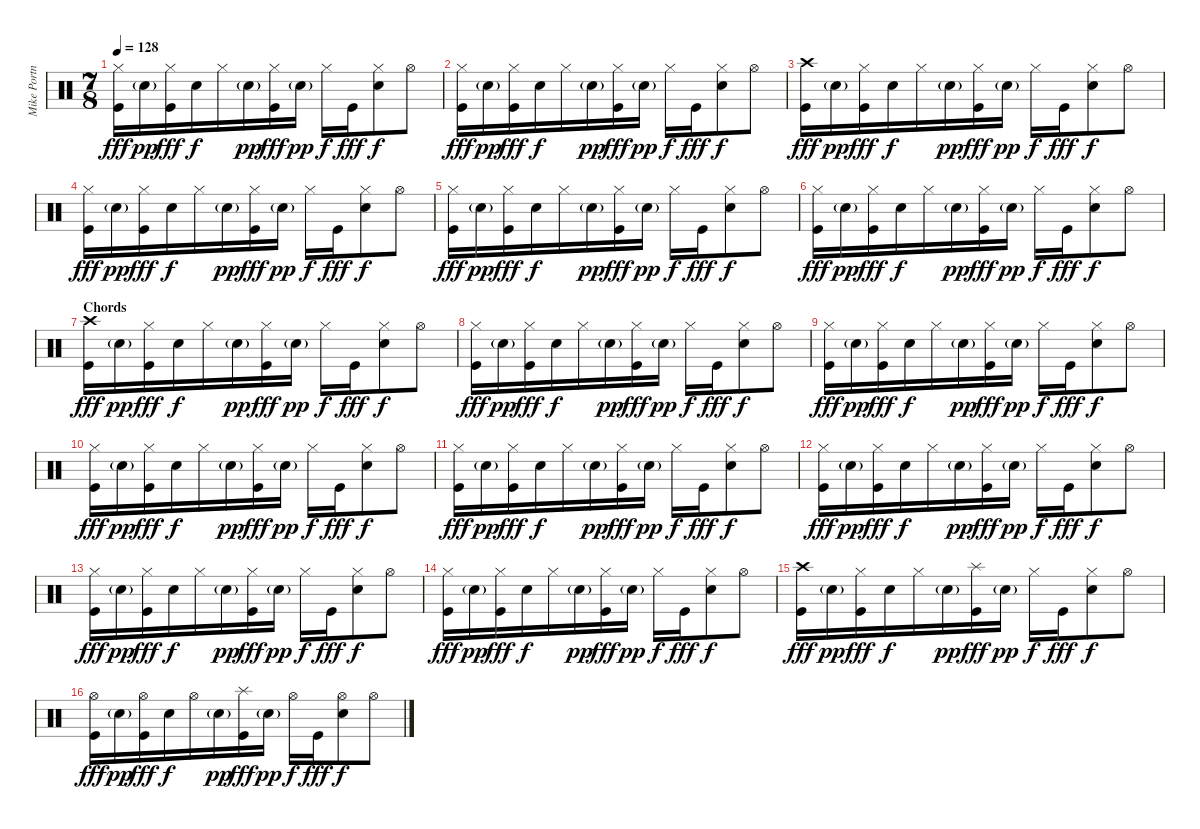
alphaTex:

\track ("Mike Portnoy" "Mike Portn") {instrument percussion}
\staff {score}
\articulation defaults
\ts (7 8)
\tempo 128
\clef neutral
\ks c
("Hi-Hat (closed)" "Kick (hit)").16{dy fff} "Electric Snare (hit)"{g}.16{dy pp} ("Hi-Hat (closed)" "Kick (hit)").16{dy fff} "Electric Snare (hit)".16{dy f} "Hi-Hat (closed)".16 "Electric Snare (hit)"{g}.16{dy pp} ("Hi-Hat (closed)" "Kick (hit)").16{dy fff} "Electric Snare (hit)"{g}.16{dy pp} "Hi-Hat (closed)".16{dy f} "Kick (hit)".16{dy fff} ("Hi-Hat (closed)" "Electric Snare (hit)").8{dy f} "Hi-Hat (open)".8 |
("Hi-Hat (closed)" "Kick (hit)").16{dy fff} "Electric Snare (hit)"{g}.16{dy pp} ("Hi-Hat (closed)" "Kick (hit)").16{dy fff} "Electric Snare (hit)".16{dy f} "Hi-Hat (closed)".16 "Electric Snare (hit)"{g}.16{dy pp} ("Hi-Hat (closed)" "Kick (hit)").16{dy fff} "Electric Snare (hit)"{g}.16{dy pp} "Hi-Hat (closed)".16{dy f} "Kick (hit)".16{dy fff} ("Hi-Hat (closed)" "Electric Snare (hit)").8{dy f} "Hi-Hat (open)".8 |
("Crash high (hit)" "Kick (hit)").16{dy fff} "Electric Snare (hit)"{g}.16{dy pp} ("Hi-Hat (closed)" "Kick (hit)").16{dy fff} "Electric Snare (hit)".16{dy f} "Hi-Hat (closed)".16 "Electric Snare (hit)"{g}.16{dy pp} ("Hi-Hat (closed)" "Kick (hit)").16{dy fff} "Electric Snare (hit)"{g}.16{dy pp} "Hi-Hat (closed)".16{dy f} "Kick (hit)".16{dy fff} ("Hi-Hat (closed)" "Electric Snare (hit)").8{dy f} "Hi-Hat (open)".8 |
("Hi-Hat (closed)" "Kick (hit)").16{dy fff} "Electric Snare (hit)"{g}.16{dy pp} ("Hi-Hat (closed)" "Kick (hit)").16{dy fff} "Electric Snare (hit)".16{dy f} "Hi-Hat (closed)".16 "Electric Snare (hit)"{g}.16{dy pp} ("Hi-Hat (closed)" "Kick (hit)").16{dy fff} "Electric Snare (hit)"{g}.16{dy pp} "Hi-Hat (closed)".16{dy f} "Kick (hit)".16{dy fff} ("Hi-Hat (closed)" "Electric Snare (hit)").8{dy f} "Hi-Hat (open)".8 |
("Hi-Hat (closed)" "Kick (hit)").16{dy fff} "Electric Snare (hit)"{g}.16{dy pp} ("Hi-Hat (closed)" "Kick (hit)").16{dy fff} "Electric Snare (hit)".16{dy f} "Hi-Hat (closed)".16 "Electric Snare (hit)"{g}.16{dy pp} ("Hi-Hat (closed)" "Kick (hit)").16{dy fff} "Electric Snare (hit)"{g}.16{dy pp} "Hi-Hat (closed)".16{dy f} "Kick (hit)".16{dy fff} ("Hi-Hat (closed)" "Electric Snare (hit)").8{dy f} "Hi-Hat (open)".8 |
("Hi-Hat (closed)" "Kick (hit)").16{dy fff} "Electric Snare (hit)"{g}.16{dy pp} ("Hi-Hat (closed)" "Kick (hit)").16{dy fff} "Electric Snare (hit)".16{dy f} "Hi-Hat (closed)".16 "Electric Snare (hit)"{g}.16{dy pp} ("Hi-Hat (closed)" "Kick (hit)").16{dy fff} "Electric Snare (hit)"{g}.16{dy pp} "Hi-Hat (closed)".16{dy f} "Kick (hit)".16{dy fff} ("Hi-Hat (closed)" "Electric Snare (hit)").8{dy f} "Hi-Hat (open)".8 |
\section ("" "Chords")
("Crash high (hit)" "Kick (hit)").16{dy fff} "Electric Snare (hit)"{g}.16{dy pp} ("Hi-Hat (closed)" "Kick (hit)").16{dy fff} "Electric Snare (hit)".16{dy f} "Hi-Hat (closed)".16 "Electric Snare (hit)"{g}.16{dy pp} ("Hi-Hat (closed)" "Kick (hit)").16{dy fff} "Electric Snare (hit)"{g}.16{dy pp} "Hi-Hat (closed)".16{dy f} "Kick (hit)".16{dy fff} ("Hi-Hat (closed)" "Electric Snare (hit)").8{dy f} "Hi-Hat (open)".8 |
("Hi-Hat (closed)" "Kick (hit)").16{dy fff} "Electric Snare (hit)"{g}.16{dy pp} ("Hi-Hat (closed)" "Kick (hit)").16{dy fff} "Electric Snare (hit)".16{dy f} "Hi-Hat (closed)".16 "Electric Snare (hit)"{g}.16{dy pp} ("Hi-Hat (closed)" "Kick (hit)").16{dy fff} "Electric Snare (hit)"{g}.16{dy pp} "Hi-Hat (closed)".16{dy f} "Kick (hit)".16{dy fff} ("Hi-Hat (closed)" "Electric Snare (hit)").8{dy f} "Hi-Hat (open)".8 |
("Hi-Hat (closed)" "Kick (hit)").16{dy fff} "Electric Snare (hit)"{g}.16{dy pp} ("Hi-Hat (closed)" "Kick (hit)").16{dy fff} "Electric Snare (hit)".16{dy f} "Hi-Hat (closed)".16 "Electric Snare (hit)"{g}.16{dy pp} ("Hi-Hat (closed)" "Kick (hit)").16{dy fff} "Electric Snare (hit)"{g}.16{dy pp} "Hi-Hat (closed)".16{dy f} "Kick (hit)".16{dy fff} ("Hi-Hat (closed)" "Electric Snare (hit)").8{dy f} "Hi-Hat (open)".8 |
("Hi-Hat (closed)" "Kick (hit)").16{dy fff} "Electric Snare (hit)"{g}.16{dy pp} ("Hi-Hat (closed)" "Kick (hit)").16{dy fff} "Electric Snare (hit)".16{dy f} "Hi-Hat (closed)".16 "Electric Snare (hit)"{g}.16{dy pp} ("Hi-Hat (closed)" "Kick (hit)").16{dy fff} "Electric Snare (hit)"{g}.16{dy pp} "Hi-Hat (closed)".16{dy f} "Kick (hit)".16{dy fff} ("Hi-Hat (closed)" "Electric Snare (hit)").8{dy f} "Hi-Hat (open)".8 |
("Hi-Hat (closed)" "Kick (hit)").16{dy fff} "Electric Snare (hit)"{g}.16{dy pp} ("Hi-Hat (closed)" "Kick (hit)").16{dy fff} "Electric Snare (hit)".16{dy f} "Hi-Hat (closed)".16 "Electric Snare (hit)"{g}.16{dy pp} ("Hi-Hat (closed)" "Kick (hit)").16{dy fff} "Electric Snare (hit)"{g}.16{dy pp} "Hi-Hat (closed)".16{dy f} "Kick (hit)".16{dy fff} ("Hi-Hat (closed)" "Electric Snare (hit)").8{dy f} "Hi-Hat (open)".8 |
("Hi-Hat (closed)" "Kick (hit)").16{dy fff} "Electric Snare (hit)"{g}.16{dy pp} ("Hi-Hat (closed)" "Kick (hit)").16{dy fff} "Electric Snare (hit)".16{dy f} "Hi-Hat (closed)".16 "Electric Snare (hit)"{g}.16{dy pp} ("Hi-Hat (closed)" "Kick (hit)").16{dy fff} "Electric Snare (hit)"{g}.16{dy pp} "Hi-Hat (closed)".16{dy f} "Kick (hit)".16{dy fff} ("Hi-Hat (closed)" "Electric Snare (hit)").8{dy f} "Hi-Hat (open)".8 |
("Hi-Hat (closed)" "Kick (hit)").16{dy fff} "Electric Snare (hit)"{g}.16{dy pp} ("Hi-Hat (closed)" "Kick (hit)").16{dy fff} "Electric Snare (hit)".16{dy f} "Hi-Hat (closed)".16 "Electric Snare (hit)"{g}.16{dy pp} ("Hi-Hat (closed)" "Kick (hit)").16{dy fff} "Electric Snare (hit)"{g}.16{dy pp} "Hi-Hat (closed)".16{dy f} "Kick (hit)".16{dy fff} ("Hi-Hat (closed)" "Electric Snare (hit)").8{dy f} "Hi-Hat (open)".8 |
("Hi-Hat (closed)" "Kick (hit)").16{dy fff} "Electric Snare (hit)"{g}.16{dy pp} ("Hi-Hat (closed)" "Kick (hit)").16{dy fff} "Electric Snare (hit)".16{dy f} "Hi-Hat (closed)".16 "Electric Snare (hit)"{g}.16{dy pp} ("Hi-Hat (closed)" "Kick (hit)").16{dy fff} "Electric Snare (hit)"{g}.16{dy pp} "Hi-Hat (closed)".16{dy f} "Kick (hit)".16{dy fff} ("Hi-Hat (closed)" "Electric Snare (hit)").8{dy f} "Hi-Hat (open)".8 |
("Crash high (hit)" "Kick (hit)").16{dy fff} "Electric Snare (hit)"{g}.16{dy pp} ("Hi-Hat (closed)" "Kick (hit)").16{dy fff} "Electric Snare (hit)".16{dy f} "Hi-Hat (closed)".16 "Electric Snare (hit)"{g}.16{dy pp} ("Splash (hit)" "Kick (hit)").16{dy fff} "Electric Snare (hit)"{g}.16{dy pp} "Hi-Hat (closed)".16{dy f} "Kick (hit)".16{dy fff} ("Hi-Hat (closed)" "Electric Snare (hit)").8{dy f} "Hi-Hat (open)".8 |
("Hi-Hat (open)" "Kick (hit)").16{dy fff} "Electric Snare (hit)"{g}.16{dy pp} ("Hi-Hat (open)" "Kick (hit)").16{dy fff} "Electric Snare (hit)".16{dy f} "Hi-Hat (open)".16 "Electric Snare (hit)"{g}.16{dy pp} ("Splash (hit)" "Kick (hit)").16{dy fff} "Electric Snare (hit)"{g}.16{dy pp} "Hi-Hat (open)".16{dy f} "Kick (hit)".16{dy fff} ("Hi-Hat (open)" "Electric Snare (hit)").8{dy f} "Hi-Hat (open)".8
